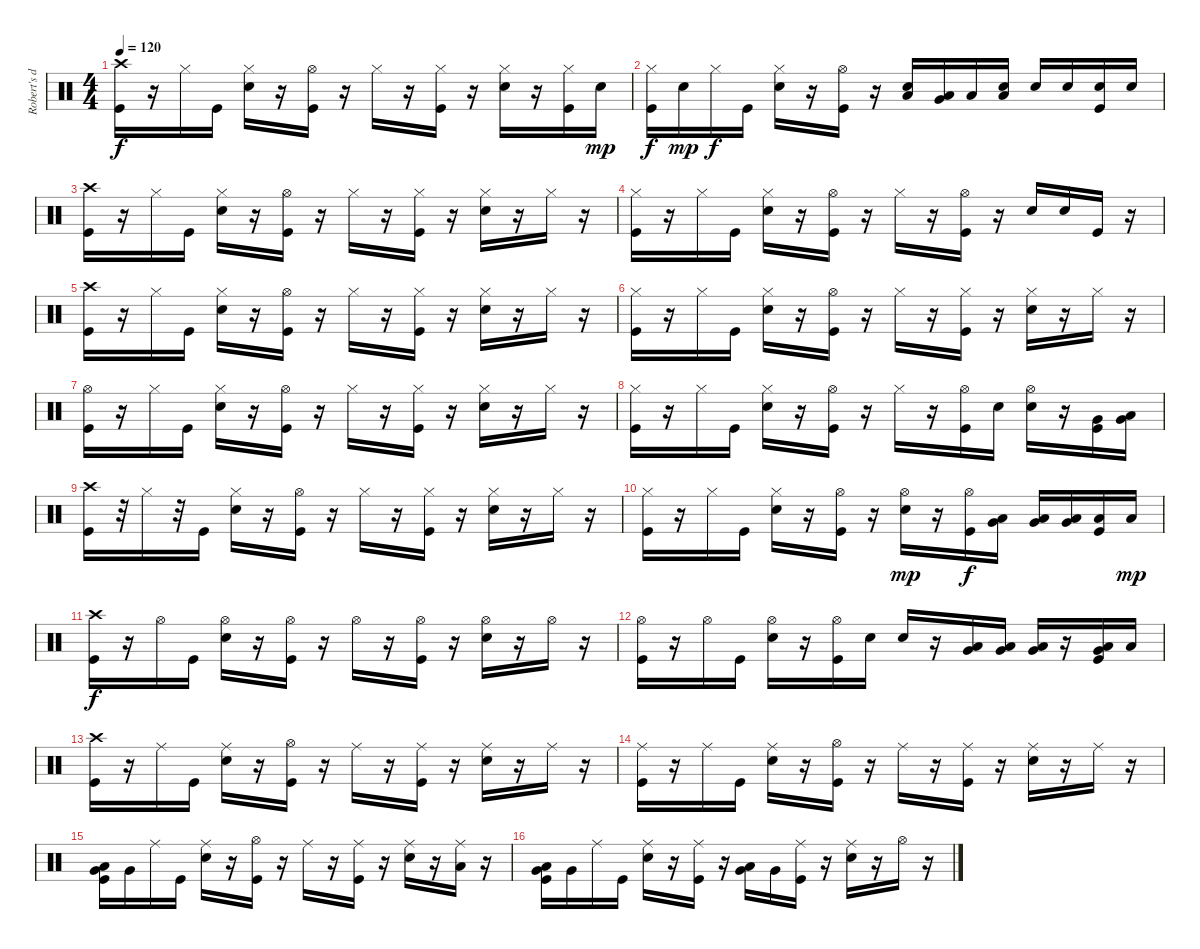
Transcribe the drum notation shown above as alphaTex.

\track ("Robert's drums" "Robert's d") {instrument percussion}
\staff {score}
\articulation defaults
\ts (4 4)
\tempo 120
\clef neutral
\ks c
("Crash high (hit)" "Kick (hit)").16{dy f} r.16 "Hi-Hat (closed)".16 "Kick (hit)".16 ("Electric Snare (hit)" "Hi-Hat (closed)").16 r.16 ("Hi-Hat (open)" "Kick (hit)").16 r.16 "Hi-Hat (closed)".16 r.16 ("Kick (hit)" "Hi-Hat (closed)").16 r.16 ("Electric Snare (hit)" "Hi-Hat (closed)").16 r.16 ("Kick (hit)" "Hi-Hat (closed)").16 "Electric Snare (hit)".16{dy mp} |
("Hi-Hat (closed)" "Kick (hit)").16{dy f} "Electric Snare (hit)".16{dy mp} "Hi-Hat (closed)".16{dy f} "Kick (hit)".16 ("Hi-Hat (closed)" "Electric Snare (hit)").16 r.16 ("Kick (hit)" "Hi-Hat (open)").16 r.16 ("Low Tom (hit)" "Electric Snare (hit)").16 ("Low Floor Tom (hit)" "Very Low Tom (hit)").16 "Low Floor Tom (hit)".16 ("Low Floor Tom (hit)" "Electric Snare (hit)").16 "Electric Snare (hit)".16 "Electric Snare (hit)".16 ("Kick (hit)" "Electric Snare (hit)").16 "Electric Snare (hit)".16 |
("Crash high (hit)" "Kick (hit)").16 r.16 "Hi-Hat (closed)".16 "Kick (hit)".16 ("Electric Snare (hit)" "Hi-Hat (closed)").16 r.16 ("Hi-Hat (open)" "Kick (hit)").16 r.16 "Hi-Hat (closed)".16 r.16 ("Hi-Hat (closed)" "Kick (hit)").16 r.16 ("Hi-Hat (closed)" "Electric Snare (hit)").16 r.16 "Hi-Hat (closed)".16 r.16 |
("Hi-Hat (closed)" "Kick (hit)").16 r.16 "Hi-Hat (closed)".16 "Kick (hit)".16 ("Hi-Hat (closed)" "Electric Snare (hit)").16 r.16 ("Hi-Hat (open)" "Kick (hit)").16 r.16 "Hi-Hat (closed)".16 r.16 ("Hi-Hat (open)" "Kick (hit)").16 r.16 "Electric Snare (hit)".16 "Electric Snare (hit)".16 "Kick (hit)".16 r.16 |
("Crash high (hit)" "Kick (hit)").16 r.16 "Hi-Hat (closed)".16 "Kick (hit)".16 ("Hi-Hat (closed)" "Electric Snare (hit)").16 r.16 ("Hi-Hat (open)" "Kick (hit)").16 r.16 "Hi-Hat (closed)".16 r.16 ("Kick (hit)" "Hi-Hat (closed)").16 r.16 ("Hi-Hat (closed)" "Electric Snare (hit)").16 r.16 "Hi-Hat (closed)".16 r.16 |
("Hi-Hat (closed)" "Kick (hit)").16 r.16 "Hi-Hat (closed)".16 "Kick (hit)".16 ("Hi-Hat (closed)" "Electric Snare (hit)").16 r.16 ("Kick (hit)" "Hi-Hat (open)").16 r.16 "Hi-Hat (closed)".16 r.16 ("Kick (hit)" "Hi-Hat (closed)").16 r.16 ("Hi-Hat (closed)" "Electric Snare (hit)").16 r.16 "Hi-Hat (closed)".16 r.16 |
("Hi-Hat (open)" "Kick (hit)").16 r.16 "Hi-Hat (closed)".16 "Kick (hit)".16 ("Electric Snare (hit)" "Hi-Hat (closed)").16 r.16 ("Kick (hit)" "Hi-Hat (open)").16 r.16 "Hi-Hat (closed)".16 r.16 ("Hi-Hat (closed)" "Kick (hit)").16 r.16 ("Electric Snare (hit)" "Hi-Hat (closed)").16 r.16 "Hi-Hat (closed)".16 r.16 |
("Hi-Hat (closed)" "Kick (hit)").16 r.16 "Hi-Hat (closed)".16 "Kick (hit)".16 ("Hi-Hat (closed)" "Electric Snare (hit)").16 r.16 ("Kick (hit)" "Hi-Hat (open)").16 r.16 "Hi-Hat (closed)".16 r.16 ("Hi-Hat (open)" "Kick (hit)").16 "Electric Snare (hit)".16 ("Hi-Hat (open)" "Electric Snare (hit)").16 r.16 ("Very Low Tom (hit)" "Kick (hit)").16 ("Low Floor Tom (hit)" "Very Low Tom (hit)").16 |
("Crash high (hit)" "Kick (hit)").16 r.32 "Hi-Hat (closed)".16 r.32 "Kick (hit)".16 ("Hi-Hat (closed)" "Electric Snare (hit)").16 r.16 ("Hi-Hat (open)" "Kick (hit)").16 r.16 "Hi-Hat (closed)".16 r.16 ("Kick (hit)" "Hi-Hat (closed)").16 r.16 ("Hi-Hat (closed)" "Electric Snare (hit)").16 r.16 "Hi-Hat (closed)".16 r.16 |
("Hi-Hat (closed)" "Kick (hit)").16 r.16 "Hi-Hat (closed)".16 "Kick (hit)".16 ("Electric Snare (hit)" "Hi-Hat (closed)").16 r.16 ("Kick (hit)" "Hi-Hat (open)").16 r.16 ("Hi-Hat (open)" "Electric Snare (hit)").16{dy mp} r.16 ("Hi-Hat (open)" "Kick (hit)").16{dy f} ("Low Tom (hit)" "Very Low Tom (hit)").16 ("Very Low Tom (hit)" "Low Floor Tom (hit)").16 ("Low Floor Tom (hit)" "Very Low Tom (hit)").16 ("Kick (hit)" "Low Floor Tom (hit)").16 "Low Floor Tom (hit)".16{dy mp} |
("Crash high (hit)" "Kick (hit)").16{dy f} r.16 "Hi-Hat (open)".16 "Kick (hit)".16 ("Hi-Hat (open)" "Electric Snare (hit)").16 r.16 ("Hi-Hat (open)" "Kick (hit)").16 r.16 "Hi-Hat (open)".16 r.16 ("Hi-Hat (open)" "Kick (hit)").16 r.16 ("Hi-Hat (open)" "Electric Snare (hit)").16 r.16 "Hi-Hat (open)".16 r.16 |
("Hi-Hat (open)" "Kick (hit)").16 r.16 "Hi-Hat (open)".16 "Kick (hit)".16 ("Hi-Hat (open)" "Electric Snare (hit)").16 r.16 ("Kick (hit)" "Hi-Hat (open)").16 "Electric Snare (hit)".16 "Electric Snare (hit)".16 r.16 ("Very Low Tom (hit)" "Low Floor Tom (hit)").16 ("Very Low Tom (hit)" "Low Tom (hit)").16 ("Very Low Tom (hit)" "Low Floor Tom (hit)").16 r.16 ("Very Low Tom (hit)" "Low Floor Tom (hit)" "Kick (hit)").16 "Low Floor Tom (hit)".16 |
("Crash high (hit)" "Kick (hit)").16 r.16 "Ride (middle)".16 "Kick (hit)".16 ("Ride (middle)" "Electric Snare (hit)").16 r.16 ("Kick (hit)" "Hi-Hat (open)").16 r.16 "Ride (middle)".16 r.16 ("Kick (hit)" "Ride (middle)").16 r.16 ("Electric Snare (hit)" "Ride (middle)").16 r.16 "Ride (middle)".16 r.16 |
("Ride (middle)" "Kick (hit)").16 r.16 "Ride (middle)".16 "Kick (hit)".16 ("Ride (middle)" "Electric Snare (hit)").16 r.16 ("Kick (hit)" "Hi-Hat (open)").16 r.16 "Ride (middle)".16 r.16 ("Ride (middle)" "Kick (hit)").16 r.16 ("Electric Snare (hit)" "Ride (middle)").16 r.16 "Ride (middle)".16 r.16 |
("Very Low Tom (hit)" "Low Tom (hit)" "Kick (hit)").16 "Very Low Tom (hit)".16 "Ride (middle)".16 "Kick (hit)".16 ("Ride (middle)" "Electric Snare (hit)").16 r.16 ("Hi-Hat (open)" "Kick (hit)").16 r.16 "Ride (middle)".16 r.16 ("Ride (middle)" "Kick (hit)").16 r.16 ("Electric Snare (hit)" "Ride (middle)").16 r.16 ("Low Floor Tom (hit)" "Ride (middle)").16 r.16 |
("Very Low Tom (hit)" "Low Tom (hit)" "Kick (hit)").16 "Very Low Tom (hit)".16 "Ride (middle)".16 "Kick (hit)".16 ("Electric Snare (hit)" "Ride (middle)").16 r.16 ("Ride (middle)" "Kick (hit)").16 r.16 ("Very Low Tom (hit)" "Low Tom (hit)").16 "Very Low Tom (hit)".16 ("Kick (hit)" "Ride (middle)").16 r.16 ("Ride (middle)" "Electric Snare (hit)").16 r.16 "Hi-Hat (open)".16 r.16
